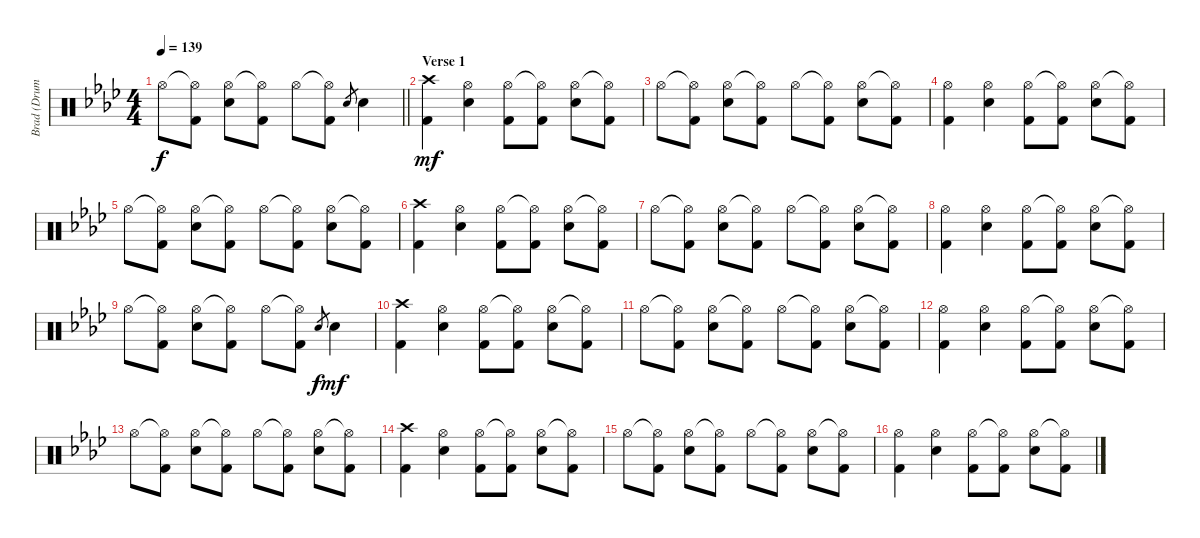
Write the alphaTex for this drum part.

\track ("Brad (Drums)" "Brad (Drum") {instrument percussion}
\staff {score}
\articulation defaults
\ts (4 4)
\tempo 139
\clef neutral
\barLineRight lightlight
\ks ab "Hi-Hat (open)".8{dy f}
("Hi-Hat (open)"{t} "Kick (hit) 2").8 ("Hi-Hat (open)" "Snare (hit) 2").8 ("Hi-Hat (open)"{t} "Kick (hit) 2").8 "Hi-Hat (open)".8 ("Hi-Hat (open)"{t} "Kick (hit) 2").8 "Snare (hit) 2".8{gr} "Snare (hit) 2".4 |
\section ("" "Verse 1")
("Crash high (hit)" "Kick (hit) 2").4{dy mf} ("Hi-Hat (open)" "Snare (hit) 2").4 ("Hi-Hat (open)" "Kick (hit) 2").8 ("Hi-Hat (open)"{t} "Kick (hit) 2").8 ("Hi-Hat (open)" "Snare (hit) 2").8 ("Hi-Hat (open)"{t} "Kick (hit) 2").8 |
"Hi-Hat (open)".8 ("Hi-Hat (open)"{t} "Kick (hit) 2").8 ("Hi-Hat (open)" "Snare (hit) 2").8 ("Hi-Hat (open)"{t} "Kick (hit) 2").8 "Hi-Hat (open)".8 ("Hi-Hat (open)"{t} "Kick (hit) 2").8 ("Hi-Hat (open)" "Snare (hit) 2").8 ("Hi-Hat (open)"{t} "Kick (hit) 2").8 |
("Hi-Hat (open)" "Kick (hit) 2").4 ("Hi-Hat (open)" "Snare (hit) 2").4 ("Hi-Hat (open)" "Kick (hit) 2").8 ("Hi-Hat (open)"{t} "Kick (hit) 2").8 ("Hi-Hat (open)" "Snare (hit) 2").8 ("Hi-Hat (open)"{t} "Kick (hit) 2").8 |
"Hi-Hat (open)".8 ("Hi-Hat (open)"{t} "Kick (hit) 2").8 ("Hi-Hat (open)" "Snare (hit) 2").8 ("Hi-Hat (open)"{t} "Kick (hit) 2").8 "Hi-Hat (open)".8 ("Hi-Hat (open)"{t} "Kick (hit) 2").8 ("Hi-Hat (open)" "Snare (hit) 2").8 ("Hi-Hat (open)"{t} "Kick (hit) 2").8 |
("Crash high (hit)" "Kick (hit) 2").4 ("Hi-Hat (open)" "Snare (hit) 2").4 ("Hi-Hat (open)" "Kick (hit) 2").8 ("Hi-Hat (open)"{t} "Kick (hit) 2").8 ("Hi-Hat (open)" "Snare (hit) 2").8 ("Hi-Hat (open)"{t} "Kick (hit) 2").8 |
"Hi-Hat (open)".8 ("Hi-Hat (open)"{t} "Kick (hit) 2").8 ("Hi-Hat (open)" "Snare (hit) 2").8 ("Hi-Hat (open)"{t} "Kick (hit) 2").8 "Hi-Hat (open)".8 ("Hi-Hat (open)"{t} "Kick (hit) 2").8 ("Hi-Hat (open)" "Snare (hit) 2").8 ("Hi-Hat (open)"{t} "Kick (hit) 2").8 |
("Hi-Hat (open)" "Kick (hit) 2").4 ("Hi-Hat (open)" "Snare (hit) 2").4 ("Hi-Hat (open)" "Kick (hit) 2").8 ("Hi-Hat (open)"{t} "Kick (hit) 2").8 ("Hi-Hat (open)" "Snare (hit) 2").8 ("Hi-Hat (open)"{t} "Kick (hit) 2").8 |
"Hi-Hat (open)".8 ("Hi-Hat (open)"{t} "Kick (hit) 2").8 ("Hi-Hat (open)" "Snare (hit) 2").8 ("Hi-Hat (open)"{t} "Kick (hit) 2").8 "Hi-Hat (open)".8 ("Hi-Hat (open)"{t} "Kick (hit) 2").8 "Snare (hit) 2".8{gr dy f} "Snare (hit) 2".4{dy mf} |
("Crash high (hit)" "Kick (hit) 2").4 ("Hi-Hat (open)" "Snare (hit) 2").4 ("Hi-Hat (open)" "Kick (hit) 2").8 ("Hi-Hat (open)"{t} "Kick (hit) 2").8 ("Hi-Hat (open)" "Snare (hit) 2").8 ("Hi-Hat (open)"{t} "Kick (hit) 2").8 |
"Hi-Hat (open)".8 ("Hi-Hat (open)"{t} "Kick (hit) 2").8 ("Hi-Hat (open)" "Snare (hit) 2").8 ("Hi-Hat (open)"{t} "Kick (hit) 2").8 "Hi-Hat (open)".8 ("Hi-Hat (open)"{t} "Kick (hit) 2").8 ("Hi-Hat (open)" "Snare (hit) 2").8 ("Hi-Hat (open)"{t} "Kick (hit) 2").8 |
("Hi-Hat (open)" "Kick (hit) 2").4 ("Hi-Hat (open)" "Snare (hit) 2").4 ("Hi-Hat (open)" "Kick (hit) 2").8 ("Hi-Hat (open)"{t} "Kick (hit) 2").8 ("Hi-Hat (open)" "Snare (hit) 2").8 ("Hi-Hat (open)"{t} "Kick (hit) 2").8 |
"Hi-Hat (open)".8 ("Hi-Hat (open)"{t} "Kick (hit) 2").8 ("Hi-Hat (open)" "Snare (hit) 2").8 ("Hi-Hat (open)"{t} "Kick (hit) 2").8 "Hi-Hat (open)".8 ("Hi-Hat (open)"{t} "Kick (hit) 2").8 ("Hi-Hat (open)" "Snare (hit) 2").8 ("Hi-Hat (open)"{t} "Kick (hit) 2").8 |
("Crash high (hit)" "Kick (hit) 2").4 ("Hi-Hat (open)" "Snare (hit) 2").4 ("Hi-Hat (open)" "Kick (hit) 2").8 ("Hi-Hat (open)"{t} "Kick (hit) 2").8 ("Hi-Hat (open)" "Snare (hit) 2").8 ("Hi-Hat (open)"{t} "Kick (hit) 2").8 |
"Hi-Hat (open)".8 ("Hi-Hat (open)"{t} "Kick (hit) 2").8 ("Hi-Hat (open)" "Snare (hit) 2").8 ("Hi-Hat (open)"{t} "Kick (hit) 2").8 "Hi-Hat (open)".8 ("Hi-Hat (open)"{t} "Kick (hit) 2").8 ("Hi-Hat (open)" "Snare (hit) 2").8 ("Hi-Hat (open)"{t} "Kick (hit) 2").8 |
("Hi-Hat (open)" "Kick (hit) 2").4 ("Hi-Hat (open)" "Snare (hit) 2").4 ("Hi-Hat (open)" "Kick (hit) 2").8 ("Hi-Hat (open)"{t} "Kick (hit) 2").8 ("Hi-Hat (open)" "Snare (hit) 2").8 ("Hi-Hat (open)"{t} "Kick (hit) 2").8
